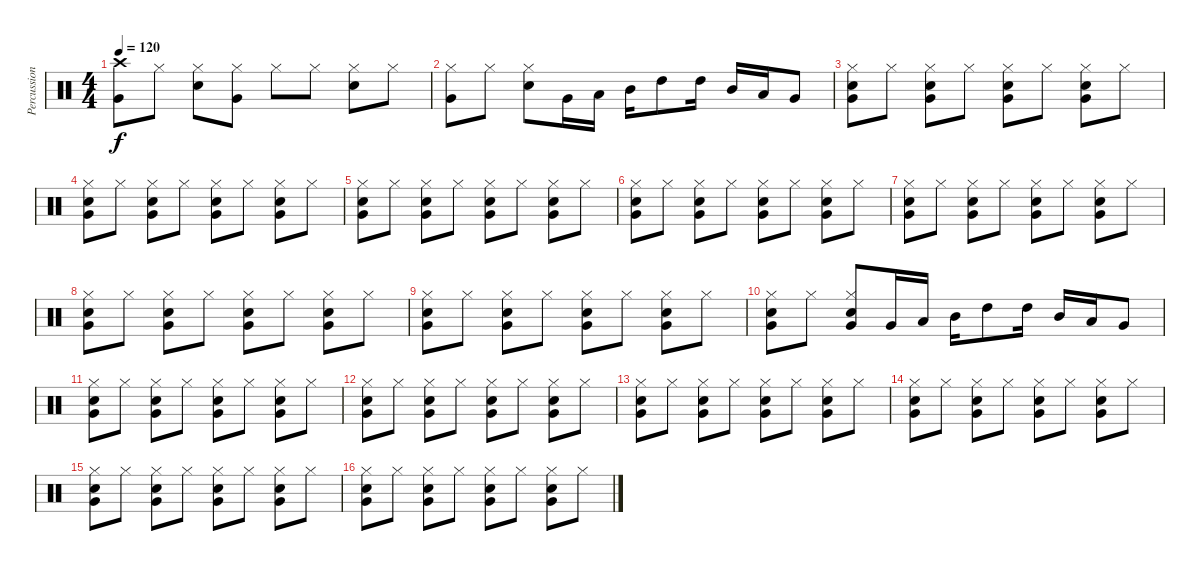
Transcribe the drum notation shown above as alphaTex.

\track ("Percussion" "Percussion") {instrument percussion}
\staff {score}
\articulation defaults
\ts (4 4)
\tempo 120
\clef neutral
\ks c
("Crash high (hit)" "Very Low Tom (hit)").8{dy f} "Hi-Hat (closed)".8 ("Hi-Hat (closed)" "Snare (hit) 2").8 ("Hi-Hat (closed)" "Very Low Tom (hit)").8 "Hi-Hat (closed)".8 "Hi-Hat (closed)".8 ("Hi-Hat (closed)" "Snare (hit) 2").8 "Hi-Hat (closed)".8 |
("Hi-Hat (closed)" "Very Low Tom (hit)").8 "Hi-Hat (closed)".8 ("Hi-Hat (closed)" "Snare (hit) 2").8 "Very Low Tom (hit)".16 "Low Tom (hit)".16 "Mid Tom (hit)".16 "High Tom (hit)".8 "High Tom (hit)".16 "Mid Tom (hit)".16 "Low Tom (hit)".16 "Very Low Tom (hit)".8 |
("Hi-Hat (closed)" "Snare (hit) 2" "Very Low Tom (hit)").8 "Hi-Hat (closed)".8 ("Hi-Hat (closed)" "Snare (hit) 2" "Very Low Tom (hit)").8 "Hi-Hat (closed)".8 ("Hi-Hat (closed)" "Snare (hit) 2" "Very Low Tom (hit)").8 "Hi-Hat (closed)".8 ("Hi-Hat (closed)" "Snare (hit) 2" "Very Low Tom (hit)").8 "Hi-Hat (closed)".8 |
("Hi-Hat (closed)" "Snare (hit) 2" "Very Low Tom (hit)").8 "Hi-Hat (closed)".8 ("Hi-Hat (closed)" "Snare (hit) 2" "Very Low Tom (hit)").8 "Hi-Hat (closed)".8 ("Hi-Hat (closed)" "Snare (hit) 2" "Very Low Tom (hit)").8 "Hi-Hat (closed)".8 ("Hi-Hat (closed)" "Snare (hit) 2" "Very Low Tom (hit)").8 "Hi-Hat (closed)".8 |
("Hi-Hat (closed)" "Snare (hit) 2" "Very Low Tom (hit)").8 "Hi-Hat (closed)".8 ("Hi-Hat (closed)" "Snare (hit) 2" "Very Low Tom (hit)").8 "Hi-Hat (closed)".8 ("Hi-Hat (closed)" "Snare (hit) 2" "Very Low Tom (hit)").8 "Hi-Hat (closed)".8 ("Hi-Hat (closed)" "Snare (hit) 2" "Very Low Tom (hit)").8 "Hi-Hat (closed)".8 |
("Hi-Hat (closed)" "Snare (hit) 2" "Very Low Tom (hit)").8 "Hi-Hat (closed)".8 ("Hi-Hat (closed)" "Snare (hit) 2" "Very Low Tom (hit)").8 "Hi-Hat (closed)".8 ("Hi-Hat (closed)" "Snare (hit) 2" "Very Low Tom (hit)").8 "Hi-Hat (closed)".8 ("Hi-Hat (closed)" "Snare (hit) 2" "Very Low Tom (hit)").8 "Hi-Hat (closed)".8 |
("Hi-Hat (closed)" "Snare (hit) 2" "Very Low Tom (hit)").8 "Hi-Hat (closed)".8 ("Hi-Hat (closed)" "Snare (hit) 2" "Very Low Tom (hit)").8 "Hi-Hat (closed)".8 ("Hi-Hat (closed)" "Snare (hit) 2" "Very Low Tom (hit)").8 "Hi-Hat (closed)".8 ("Hi-Hat (closed)" "Snare (hit) 2" "Very Low Tom (hit)").8 "Hi-Hat (closed)".8 |
("Hi-Hat (closed)" "Snare (hit) 2" "Very Low Tom (hit)").8 "Hi-Hat (closed)".8 ("Hi-Hat (closed)" "Snare (hit) 2" "Very Low Tom (hit)").8 "Hi-Hat (closed)".8 ("Hi-Hat (closed)" "Snare (hit) 2" "Very Low Tom (hit)").8 "Hi-Hat (closed)".8 ("Hi-Hat (closed)" "Snare (hit) 2" "Very Low Tom (hit)").8 "Hi-Hat (closed)".8 |
("Hi-Hat (closed)" "Snare (hit) 2" "Very Low Tom (hit)").8 "Hi-Hat (closed)".8 ("Hi-Hat (closed)" "Snare (hit) 2" "Very Low Tom (hit)").8 "Hi-Hat (closed)".8 ("Hi-Hat (closed)" "Snare (hit) 2" "Very Low Tom (hit)").8 "Hi-Hat (closed)".8 ("Hi-Hat (closed)" "Snare (hit) 2" "Very Low Tom (hit)").8 "Hi-Hat (closed)".8 |
("Hi-Hat (closed)" "Snare (hit) 2" "Very Low Tom (hit)").8 "Hi-Hat (closed)".8 ("Hi-Hat (closed)" "Snare (hit) 2" "Very Low Tom (hit)").8 "Very Low Tom (hit)".16 "Low Tom (hit)".16 "Mid Tom (hit)".16 "High Tom (hit)".8 "High Tom (hit)".16 "Mid Tom (hit)".16 "Low Tom (hit)".16 "Very Low Tom (hit)".8 |
("Hi-Hat (closed)" "Snare (hit) 2" "Very Low Tom (hit)").8 "Hi-Hat (closed)".8 ("Hi-Hat (closed)" "Snare (hit) 2" "Very Low Tom (hit)").8 "Hi-Hat (closed)".8 ("Hi-Hat (closed)" "Snare (hit) 2" "Very Low Tom (hit)").8 "Hi-Hat (closed)".8 ("Hi-Hat (closed)" "Snare (hit) 2" "Very Low Tom (hit)").8 "Hi-Hat (closed)".8 |
("Hi-Hat (closed)" "Snare (hit) 2" "Very Low Tom (hit)").8 "Hi-Hat (closed)".8 ("Hi-Hat (closed)" "Snare (hit) 2" "Very Low Tom (hit)").8 "Hi-Hat (closed)".8 ("Hi-Hat (closed)" "Snare (hit) 2" "Very Low Tom (hit)").8 "Hi-Hat (closed)".8 ("Hi-Hat (closed)" "Snare (hit) 2" "Very Low Tom (hit)").8 "Hi-Hat (closed)".8 |
("Hi-Hat (closed)" "Snare (hit) 2" "Very Low Tom (hit)").8 "Hi-Hat (closed)".8 ("Hi-Hat (closed)" "Snare (hit) 2" "Very Low Tom (hit)").8 "Hi-Hat (closed)".8 ("Hi-Hat (closed)" "Snare (hit) 2" "Very Low Tom (hit)").8 "Hi-Hat (closed)".8 ("Hi-Hat (closed)" "Snare (hit) 2" "Very Low Tom (hit)").8 "Hi-Hat (closed)".8 |
("Hi-Hat (closed)" "Snare (hit) 2" "Very Low Tom (hit)").8 "Hi-Hat (closed)".8 ("Hi-Hat (closed)" "Snare (hit) 2" "Very Low Tom (hit)").8 "Hi-Hat (closed)".8 ("Hi-Hat (closed)" "Snare (hit) 2" "Very Low Tom (hit)").8 "Hi-Hat (closed)".8 ("Hi-Hat (closed)" "Snare (hit) 2" "Very Low Tom (hit)").8 "Hi-Hat (closed)".8 |
("Hi-Hat (closed)" "Snare (hit) 2" "Very Low Tom (hit)").8 "Hi-Hat (closed)".8 ("Hi-Hat (closed)" "Snare (hit) 2" "Very Low Tom (hit)").8 "Hi-Hat (closed)".8 ("Hi-Hat (closed)" "Snare (hit) 2" "Very Low Tom (hit)").8 "Hi-Hat (closed)".8 ("Hi-Hat (closed)" "Snare (hit) 2" "Very Low Tom (hit)").8 "Hi-Hat (closed)".8 |
("Hi-Hat (closed)" "Snare (hit) 2" "Very Low Tom (hit)").8 "Hi-Hat (closed)".8 ("Hi-Hat (closed)" "Snare (hit) 2" "Very Low Tom (hit)").8 "Hi-Hat (closed)".8 ("Hi-Hat (closed)" "Snare (hit) 2" "Very Low Tom (hit)").8 "Hi-Hat (closed)".8 ("Hi-Hat (closed)" "Snare (hit) 2" "Very Low Tom (hit)").8 "Hi-Hat (closed)".8
